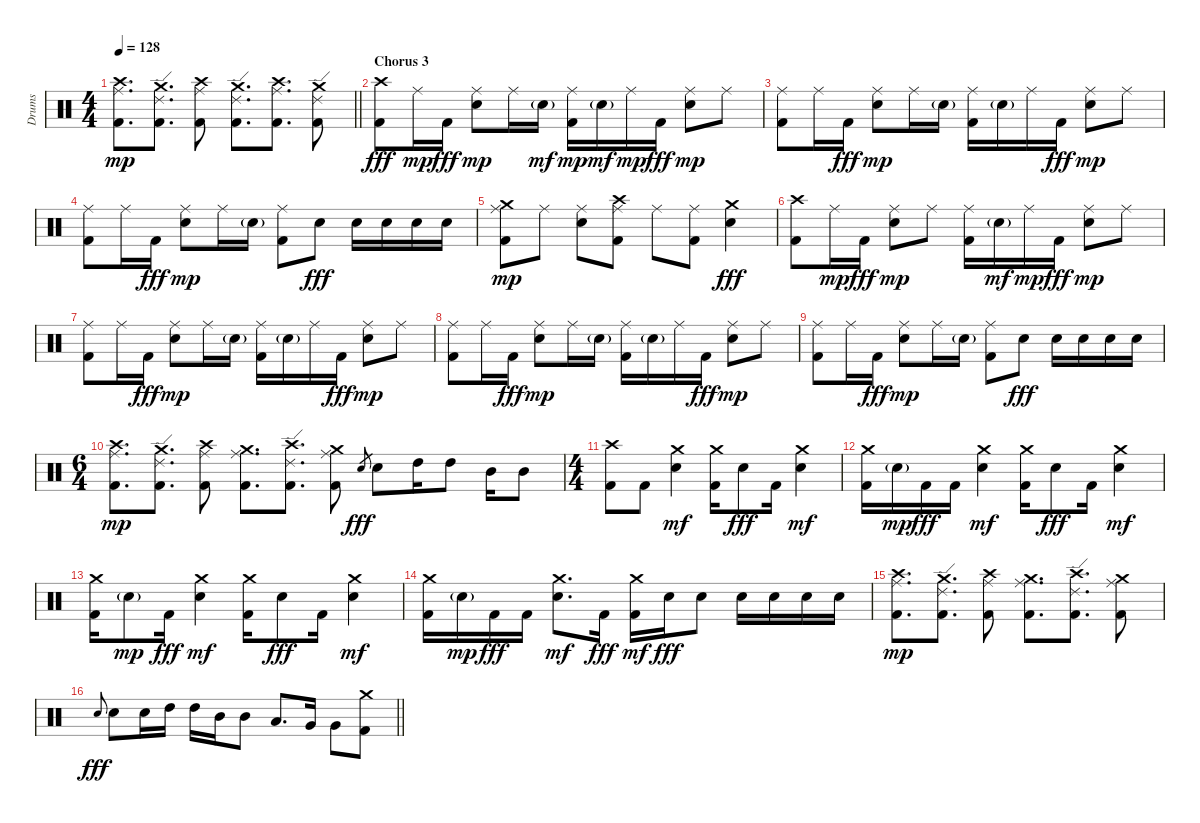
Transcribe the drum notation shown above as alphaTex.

\track ("Drums" "Drums") {instrument percussion}
\staff {score}
\articulation defaults
\ts (4 4)
\tempo 128
\clef neutral
\barLineRight lightlight
\ks c
("Kick (hit) 2" "Ride (middle)" "Crash high (hit)").8{d dy mp} ("Kick (hit) 2" "Ride (edge) 2" "Crash medium (hit)").8{d} ("Kick (hit) 2" "Ride (middle)" "Crash high (hit)").8 ("Kick (hit) 2" "Ride (edge) 2" "Crash medium (hit)").8{d} ("Kick (hit) 2" "Ride (middle)" "Crash high (hit)").8{d} ("Kick (hit) 2" "Ride (edge) 2" "Crash medium (hit)").8 |
\section ("" "Chorus 3")
("Kick (hit) 2" "Crash high (hit)").8{dy fff} "Ride (middle)".16{dy mp} "Kick (hit) 2".16{dy fff} ("Electric Snare (hit)" "Ride (middle)").8{dy mp} "Ride (middle)".16 "Electric Snare (hit)"{g}.16{dy mf} ("Kick (hit) 2" "Ride (middle)").16{dy mp} "Electric Snare (hit)"{g}.16{dy mf} "Ride (middle)".16{dy mp} "Kick (hit) 2".16{dy fff} ("Electric Snare (hit)" "Ride (middle)").8{dy mp} "Ride (middle)".8 |
("Kick (hit) 2" "Ride (middle)").8 "Ride (middle)".16 "Kick (hit) 2".16{dy fff} ("Electric Snare (hit)" "Ride (middle)").8{dy mp} "Ride (middle)".16 "Electric Snare (hit)"{g}.16 ("Kick (hit) 2" "Ride (middle)").16 "Electric Snare (hit)"{g}.16 "Ride (middle)".16 "Kick (hit) 2".16{dy fff} ("Electric Snare (hit)" "Ride (middle)").8{dy mp} "Ride (middle)".8 |
("Kick (hit) 2" "Ride (middle)").8 "Ride (middle)".16 "Kick (hit) 2".16{dy fff} ("Electric Snare (hit)" "Ride (middle)").8{dy mp} "Ride (middle)".16 "Electric Snare (hit)"{g}.16 ("Kick (hit) 2" "Ride (middle)").8 "Electric Snare (hit)".8{dy fff} "Electric Snare (hit)".16 "Electric Snare (hit)".16 "Electric Snare (hit)".16 "Electric Snare (hit)".16 |
("Kick (hit) 2" "Ride (middle)" "Crash medium (hit)").8{dy mp} "Ride (middle)".8 ("Electric Snare (hit)" "Ride (middle)").8 ("Kick (hit) 2" "Ride (middle)" "Crash high (hit)").8 "Ride (middle)".8 ("Kick (hit) 2" "Ride (middle)").8 ("Electric Snare (hit)" "Crash medium (hit)").4{dy fff} |
("Kick (hit) 2" "Crash high (hit)").8 "Ride (middle)".16{dy mp} "Kick (hit) 2".16{dy fff} ("Electric Snare (hit)" "Ride (middle)").8{dy mp} "Ride (middle)".8 ("Kick (hit) 2" "Ride (middle)").16 "Electric Snare (hit)"{g}.16{dy mf} "Ride (middle)".16{dy mp} "Kick (hit) 2".16{dy fff} ("Electric Snare (hit)" "Ride (middle)").8{dy mp} "Ride (middle)".8 |
("Kick (hit) 2" "Ride (middle)").8 "Ride (middle)".16 "Kick (hit) 2".16{dy fff} ("Electric Snare (hit)" "Ride (middle)").8{dy mp} "Ride (middle)".16 "Electric Snare (hit)"{g}.16 ("Kick (hit) 2" "Ride (middle)").16 "Electric Snare (hit)"{g}.16 "Ride (middle)".16 "Kick (hit) 2".16{dy fff} ("Electric Snare (hit)" "Ride (middle)").8{dy mp} "Ride (middle)".8 |
("Kick (hit) 2" "Ride (middle)").8 "Ride (middle)".16 "Kick (hit) 2".16{dy fff} ("Electric Snare (hit)" "Ride (middle)").8{dy mp} "Ride (middle)".16 "Electric Snare (hit)"{g}.16 ("Kick (hit) 2" "Ride (middle)").16 "Electric Snare (hit)"{g}.16 "Ride (middle)".16 "Kick (hit) 2".16{dy fff} ("Electric Snare (hit)" "Ride (middle)").8{dy mp} "Ride (middle)".8 |
("Kick (hit) 2" "Ride (middle)").8 "Ride (middle)".16 "Kick (hit) 2".16{dy fff} ("Electric Snare (hit)" "Ride (middle)").8{dy mp} "Ride (middle)".16 "Electric Snare (hit)"{g}.16 ("Kick (hit) 2" "Ride (middle)").8 "Electric Snare (hit)".8{dy fff} "Electric Snare (hit)".16 "Electric Snare (hit)".16 "Electric Snare (hit)".16 "Electric Snare (hit)".16 |
\ts (6 4)
("Kick (hit) 2" "Ride (middle)" "Crash high (hit)").8{d dy mp} ("Kick (hit) 2" "Ride (edge) 2" "Crash medium (hit)").8{d} ("Kick (hit) 2" "Ride (middle)" "Crash high (hit)").8 ("Kick (hit) 2" "Ride (middle)" "Crash medium (hit)").8{d} ("Kick (hit) 2" "Ride (edge) 2" "Crash high (hit)").8{d} ("Kick (hit) 2" "Ride (middle)" "Crash medium (hit)").8 "Electric Snare (hit)".8{gr dy fff} "Electric Snare (hit)".8 "High Tom (hit)".16 "High Tom (hit)".8 "Mid Tom (hit)".16 "Mid Tom (hit)".8 |
\ts (4 4)
("Kick (hit) 2" "Crash high (hit)").8 "Kick (hit) 2".8 ("Electric Snare (hit)" "Crash medium (hit)").4{dy mf} ("Kick (hit) 2" "Crash medium (hit)").16 "Electric Snare (hit)".8{dy fff} "Kick (hit) 2".16 ("Electric Snare (hit)" "Crash medium (hit)").4{dy mf} |
("Kick (hit) 2" "Crash medium (hit)").16 "Electric Snare (hit)"{g}.16{dy mp} "Kick (hit) 2".16{dy fff} "Kick (hit) 2".16 ("Electric Snare (hit)" "Crash medium (hit)").4{dy mf} ("Kick (hit) 2" "Crash medium (hit)").16 "Electric Snare (hit)".8{dy fff} "Kick (hit) 2".16 ("Electric Snare (hit)" "Crash medium (hit)").4{dy mf} |
("Kick (hit) 2" "Crash medium (hit)").16 "Electric Snare (hit)"{g}.8{dy mp} "Kick (hit) 2".16{dy fff} ("Electric Snare (hit)" "Crash medium (hit)").4{dy mf} ("Kick (hit) 2" "Crash medium (hit)").16 "Electric Snare (hit)".8{dy fff} "Kick (hit) 2".16 ("Electric Snare (hit)" "Crash medium (hit)").4{dy mf} |
("Kick (hit) 2" "Crash medium (hit)").16 "Electric Snare (hit)"{g}.16{dy mp} "Kick (hit) 2".16{dy fff} "Kick (hit) 2".16 ("Electric Snare (hit)" "Crash medium (hit)").8{d dy mf} "Kick (hit) 2".16{dy fff} ("Kick (hit) 2" "Crash medium (hit)").16{dy mf} "Electric Snare (hit)".16{dy fff} "Electric Snare (hit)".8 "Electric Snare (hit)".16 "Electric Snare (hit)".16 "Electric Snare (hit)".16 "Electric Snare (hit)".16 |
("Kick (hit) 2" "Ride (middle)" "Crash high (hit)").8{d dy mp} ("Kick (hit) 2" "Ride (edge) 2" "Crash medium (hit)").8{d} ("Kick (hit) 2" "Ride (middle)" "Crash high (hit)").8 ("Kick (hit) 2" "Ride (middle)" "Crash medium (hit)").8{d} ("Kick (hit) 2" "Ride (edge) 2" "Crash high (hit)").8{d} ("Kick (hit) 2" "Ride (middle)" "Crash medium (hit)").8 |
\barLineRight lightlight "Electric Snare (hit)".8{gr onbeat dy fff} "Electric Snare (hit)".8 "Electric Snare (hit)".16 "High Tom (hit)".16 "High Tom (hit)".16 "Mid Tom (hit)".16 "Mid Tom (hit)".8 "Low Tom (hit)".8{d} "Very Low Tom (hit)".16 "Very Low Tom (hit)".8
("Kick (hit) 2" "Crash medium (hit)").8
